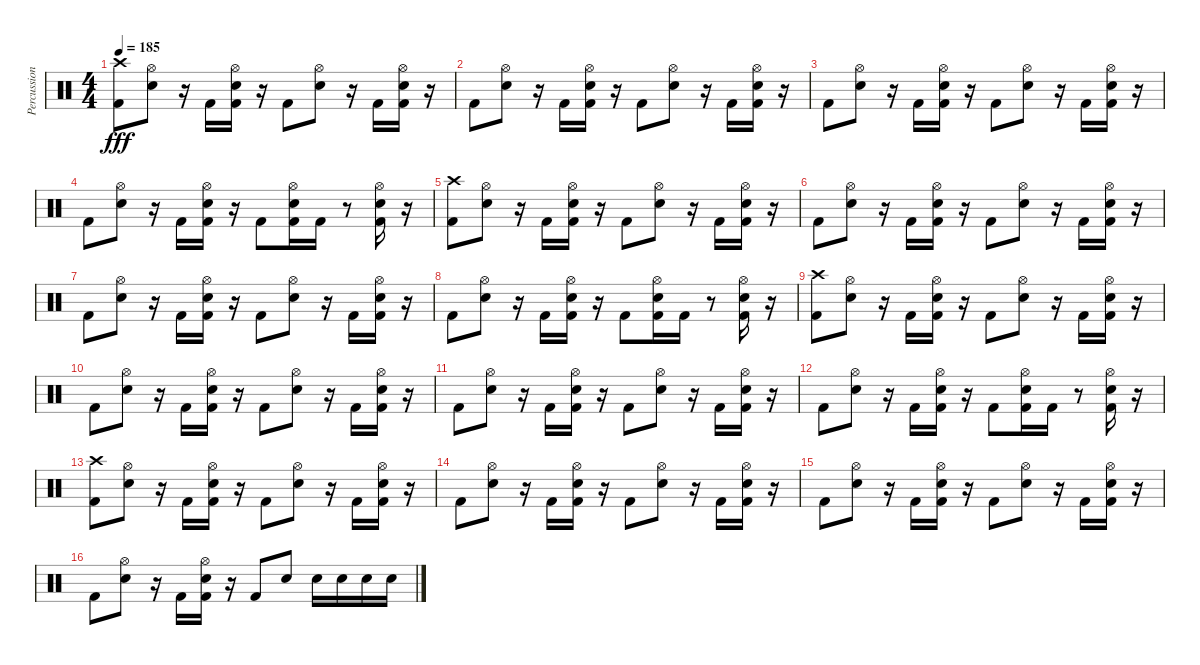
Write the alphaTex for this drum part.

\track ("Percussion" "Percussion") {instrument percussion}
\staff {score}
\articulation defaults
\ts (4 4)
\tempo 185
\clef neutral
\ks c
("Kick (hit) 2" "Crash high (hit)").8{dy fff} ("Electric Snare (hit)" "Hi-Hat (open)").8 r.16 "Kick (hit) 2".16 ("Kick (hit) 2" "Electric Snare (hit)" "Hi-Hat (open)").16 r.16 "Kick (hit) 2".8 ("Electric Snare (hit)" "Hi-Hat (open)").8 r.16 "Kick (hit) 2".16 ("Kick (hit) 2" "Electric Snare (hit)" "Hi-Hat (open)").16 r.16 |
"Kick (hit) 2".8 ("Electric Snare (hit)" "Hi-Hat (open)").8 r.16 "Kick (hit) 2".16 ("Kick (hit) 2" "Electric Snare (hit)" "Hi-Hat (open)").16 r.16 "Kick (hit) 2".8 ("Electric Snare (hit)" "Hi-Hat (open)").8 r.16 "Kick (hit) 2".16 ("Kick (hit) 2" "Electric Snare (hit)" "Hi-Hat (open)").16 r.16 |
"Kick (hit) 2".8 ("Electric Snare (hit)" "Hi-Hat (open)").8 r.16 "Kick (hit) 2".16 ("Kick (hit) 2" "Electric Snare (hit)" "Hi-Hat (open)").16 r.16 "Kick (hit) 2".8 ("Electric Snare (hit)" "Hi-Hat (open)").8 r.16 "Kick (hit) 2".16 ("Kick (hit) 2" "Electric Snare (hit)" "Hi-Hat (open)").16 r.16 |
"Kick (hit) 2".8 ("Electric Snare (hit)" "Hi-Hat (open)").8 r.16 "Kick (hit) 2".16 ("Kick (hit) 2" "Electric Snare (hit)" "Hi-Hat (open)").16 r.16 "Kick (hit) 2".8 ("Kick (hit) 2" "Electric Snare (hit)" "Hi-Hat (open)").16 "Kick (hit) 2".16 r.8 ("Kick (hit) 2" "Electric Snare (hit)" "Hi-Hat (open)").16 r.16 |
("Kick (hit) 2" "Crash high (hit)").8 ("Electric Snare (hit)" "Hi-Hat (open)").8 r.16 "Kick (hit) 2".16 ("Kick (hit) 2" "Electric Snare (hit)" "Hi-Hat (open)").16 r.16 "Kick (hit) 2".8 ("Electric Snare (hit)" "Hi-Hat (open)").8 r.16 "Kick (hit) 2".16 ("Kick (hit) 2" "Electric Snare (hit)" "Hi-Hat (open)").16 r.16 |
"Kick (hit) 2".8 ("Electric Snare (hit)" "Hi-Hat (open)").8 r.16 "Kick (hit) 2".16 ("Kick (hit) 2" "Electric Snare (hit)" "Hi-Hat (open)").16 r.16 "Kick (hit) 2".8 ("Electric Snare (hit)" "Hi-Hat (open)").8 r.16 "Kick (hit) 2".16 ("Kick (hit) 2" "Electric Snare (hit)" "Hi-Hat (open)").16 r.16 |
"Kick (hit) 2".8 ("Electric Snare (hit)" "Hi-Hat (open)").8 r.16 "Kick (hit) 2".16 ("Kick (hit) 2" "Electric Snare (hit)" "Hi-Hat (open)").16 r.16 "Kick (hit) 2".8 ("Electric Snare (hit)" "Hi-Hat (open)").8 r.16 "Kick (hit) 2".16 ("Kick (hit) 2" "Electric Snare (hit)" "Hi-Hat (open)").16 r.16 |
"Kick (hit) 2".8 ("Electric Snare (hit)" "Hi-Hat (open)").8 r.16 "Kick (hit) 2".16 ("Kick (hit) 2" "Electric Snare (hit)" "Hi-Hat (open)").16 r.16 "Kick (hit) 2".8 ("Kick (hit) 2" "Electric Snare (hit)" "Hi-Hat (open)").16 "Kick (hit) 2".16 r.8 ("Kick (hit) 2" "Electric Snare (hit)" "Hi-Hat (open)").16 r.16 |
("Kick (hit) 2" "Crash high (hit)").8 ("Electric Snare (hit)" "Hi-Hat (open)").8 r.16 "Kick (hit) 2".16 ("Kick (hit) 2" "Electric Snare (hit)" "Hi-Hat (open)").16 r.16 "Kick (hit) 2".8 ("Electric Snare (hit)" "Hi-Hat (open)").8 r.16 "Kick (hit) 2".16 ("Kick (hit) 2" "Electric Snare (hit)" "Hi-Hat (open)").16 r.16 |
"Kick (hit) 2".8 ("Electric Snare (hit)" "Hi-Hat (open)").8 r.16 "Kick (hit) 2".16 ("Kick (hit) 2" "Electric Snare (hit)" "Hi-Hat (open)").16 r.16 "Kick (hit) 2".8 ("Electric Snare (hit)" "Hi-Hat (open)").8 r.16 "Kick (hit) 2".16 ("Kick (hit) 2" "Electric Snare (hit)" "Hi-Hat (open)").16 r.16 |
"Kick (hit) 2".8 ("Electric Snare (hit)" "Hi-Hat (open)").8 r.16 "Kick (hit) 2".16 ("Kick (hit) 2" "Electric Snare (hit)" "Hi-Hat (open)").16 r.16 "Kick (hit) 2".8 ("Electric Snare (hit)" "Hi-Hat (open)").8 r.16 "Kick (hit) 2".16 ("Kick (hit) 2" "Electric Snare (hit)" "Hi-Hat (open)").16 r.16 |
"Kick (hit) 2".8 ("Electric Snare (hit)" "Hi-Hat (open)").8 r.16 "Kick (hit) 2".16 ("Kick (hit) 2" "Electric Snare (hit)" "Hi-Hat (open)").16 r.16 "Kick (hit) 2".8 ("Kick (hit) 2" "Electric Snare (hit)" "Hi-Hat (open)").16 "Kick (hit) 2".16 r.8 ("Kick (hit) 2" "Electric Snare (hit)" "Hi-Hat (open)").16 r.16 |
("Kick (hit) 2" "Crash high (hit)").8 ("Electric Snare (hit)" "Hi-Hat (open)").8 r.16 "Kick (hit) 2".16 ("Kick (hit) 2" "Electric Snare (hit)" "Hi-Hat (open)").16 r.16 "Kick (hit) 2".8 ("Electric Snare (hit)" "Hi-Hat (open)").8 r.16 "Kick (hit) 2".16 ("Kick (hit) 2" "Electric Snare (hit)" "Hi-Hat (open)").16 r.16 |
"Kick (hit) 2".8 ("Electric Snare (hit)" "Hi-Hat (open)").8 r.16 "Kick (hit) 2".16 ("Kick (hit) 2" "Electric Snare (hit)" "Hi-Hat (open)").16 r.16 "Kick (hit) 2".8 ("Electric Snare (hit)" "Hi-Hat (open)").8 r.16 "Kick (hit) 2".16 ("Kick (hit) 2" "Electric Snare (hit)" "Hi-Hat (open)").16 r.16 |
"Kick (hit) 2".8 ("Electric Snare (hit)" "Hi-Hat (open)").8 r.16 "Kick (hit) 2".16 ("Kick (hit) 2" "Electric Snare (hit)" "Hi-Hat (open)").16 r.16 "Kick (hit) 2".8 ("Electric Snare (hit)" "Hi-Hat (open)").8 r.16 "Kick (hit) 2".16 ("Kick (hit) 2" "Electric Snare (hit)" "Hi-Hat (open)").16 r.16 |
"Kick (hit) 2".8 ("Electric Snare (hit)" "Hi-Hat (open)").8 r.16 "Kick (hit) 2".16 ("Kick (hit) 2" "Electric Snare (hit)" "Hi-Hat (open)").16 r.16 "Kick (hit) 2".8 "Electric Snare (hit)".8 "Electric Snare (hit)".16 "Electric Snare (hit)".16 "Electric Snare (hit)".16 "Electric Snare (hit)".16
